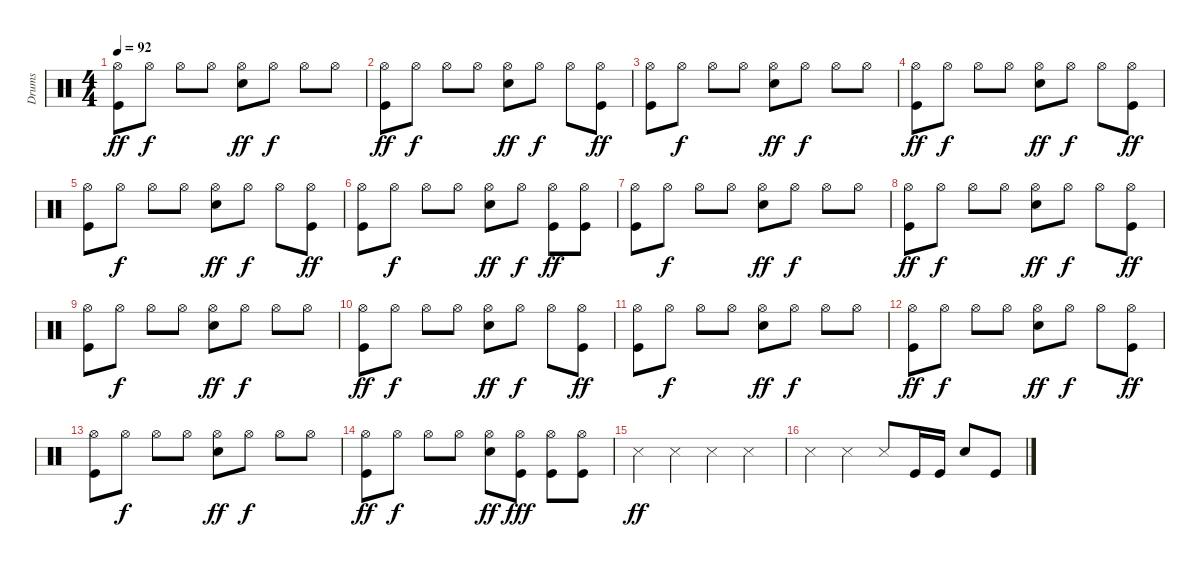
\track ("Drums" "Drums") {instrument percussion}
\staff {score}
\articulation defaults
\ts (4 4)
\tempo 92
\clef neutral
\ks c
("Hi-Hat (open)" "Kick (hit)").8{dy ff} "Hi-Hat (open)".8{dy f} "Hi-Hat (open)".8 "Hi-Hat (open)".8 ("Hi-Hat (open)" "Snare (hit) 2").8{dy ff} "Hi-Hat (open)".8{dy f} "Hi-Hat (open)".8 "Hi-Hat (open)".8 |
("Hi-Hat (open)" "Kick (hit)").8{dy ff} "Hi-Hat (open)".8{dy f} "Hi-Hat (open)".8 "Hi-Hat (open)".8 ("Hi-Hat (open)" "Snare (hit) 2").8{dy ff} "Hi-Hat (open)".8{dy f} "Hi-Hat (open)".8 ("Hi-Hat (open)" "Kick (hit)").8{dy ff} |
("Hi-Hat (open)" "Kick (hit)").8 "Hi-Hat (open)".8{dy f} "Hi-Hat (open)".8 "Hi-Hat (open)".8 ("Hi-Hat (open)" "Snare (hit) 2").8{dy ff} "Hi-Hat (open)".8{dy f} "Hi-Hat (open)".8 "Hi-Hat (open)".8 |
("Hi-Hat (open)" "Kick (hit)").8{dy ff} "Hi-Hat (open)".8{dy f} "Hi-Hat (open)".8 "Hi-Hat (open)".8 ("Hi-Hat (open)" "Snare (hit) 2").8{dy ff} "Hi-Hat (open)".8{dy f} "Hi-Hat (open)".8 ("Hi-Hat (open)" "Kick (hit)").8{dy ff} |
("Hi-Hat (open)" "Kick (hit)").8 "Hi-Hat (open)".8{dy f} "Hi-Hat (open)".8 "Hi-Hat (open)".8 ("Hi-Hat (open)" "Snare (hit) 2").8{dy ff} "Hi-Hat (open)".8{dy f} "Hi-Hat (open)".8 ("Hi-Hat (open)" "Kick (hit)").8{dy ff} |
("Hi-Hat (open)" "Kick (hit)").8 "Hi-Hat (open)".8{dy f} "Hi-Hat (open)".8 "Hi-Hat (open)".8 ("Hi-Hat (open)" "Snare (hit) 2").8{dy ff} "Hi-Hat (open)".8{dy f} ("Hi-Hat (open)" "Kick (hit)").8{dy ff} ("Hi-Hat (open)" "Kick (hit)").8 |
("Hi-Hat (open)" "Kick (hit)").8 "Hi-Hat (open)".8{dy f} "Hi-Hat (open)".8 "Hi-Hat (open)".8 ("Hi-Hat (open)" "Snare (hit) 2").8{dy ff} "Hi-Hat (open)".8{dy f} "Hi-Hat (open)".8 "Hi-Hat (open)".8 |
("Hi-Hat (open)" "Kick (hit)").8{dy ff} "Hi-Hat (open)".8{dy f} "Hi-Hat (open)".8 "Hi-Hat (open)".8 ("Hi-Hat (open)" "Snare (hit) 2").8{dy ff} "Hi-Hat (open)".8{dy f} "Hi-Hat (open)".8 ("Hi-Hat (open)" "Kick (hit)").8{dy ff} |
("Hi-Hat (open)" "Kick (hit)").8 "Hi-Hat (open)".8{dy f} "Hi-Hat (open)".8 "Hi-Hat (open)".8 ("Hi-Hat (open)" "Snare (hit) 2").8{dy ff} "Hi-Hat (open)".8{dy f} "Hi-Hat (open)".8 "Hi-Hat (open)".8 |
("Hi-Hat (open)" "Kick (hit)").8{dy ff} "Hi-Hat (open)".8{dy f} "Hi-Hat (open)".8 "Hi-Hat (open)".8 ("Hi-Hat (open)" "Snare (hit) 2").8{dy ff} "Hi-Hat (open)".8{dy f} "Hi-Hat (open)".8 ("Hi-Hat (open)" "Kick (hit)").8{dy ff} |
("Hi-Hat (open)" "Kick (hit)").8 "Hi-Hat (open)".8{dy f} "Hi-Hat (open)".8 "Hi-Hat (open)".8 ("Hi-Hat (open)" "Snare (hit) 2").8{dy ff} "Hi-Hat (open)".8{dy f} "Hi-Hat (open)".8 "Hi-Hat (open)".8 |
("Hi-Hat (open)" "Kick (hit)").8{dy ff} "Hi-Hat (open)".8{dy f} "Hi-Hat (open)".8 "Hi-Hat (open)".8 ("Hi-Hat (open)" "Snare (hit) 2").8{dy ff} "Hi-Hat (open)".8{dy f} "Hi-Hat (open)".8 ("Hi-Hat (open)" "Kick (hit)").8{dy ff} |
("Hi-Hat (open)" "Kick (hit)").8 "Hi-Hat (open)".8{dy f} "Hi-Hat (open)".8 "Hi-Hat (open)".8 ("Hi-Hat (open)" "Snare (hit) 2").8{dy ff} "Hi-Hat (open)".8{dy f} "Hi-Hat (open)".8 "Hi-Hat (open)".8 |
("Hi-Hat (open)" "Kick (hit)").8{dy ff} "Hi-Hat (open)".8{dy f} "Hi-Hat (open)".8 "Hi-Hat (open)".8 ("Hi-Hat (open)" "Snare (hit) 2").8{dy ff} ("Hi-Hat (open)" "Kick (hit)").8{dy fff} ("Hi-Hat (open)" "Kick (hit)").8 ("Hi-Hat (open)" "Kick (hit)").8 |
"Snare (side stick) 3".4{dy ff} "Snare (side stick) 3".4 "Snare (side stick) 3".4 "Snare (side stick) 3".4 |
"Snare (side stick) 3".4 "Snare (side stick) 3".4 "Snare (side stick) 3".8 "Kick (hit)".16 "Kick (hit)".16 "Snare (hit) 2".8 "Kick (hit)".8
